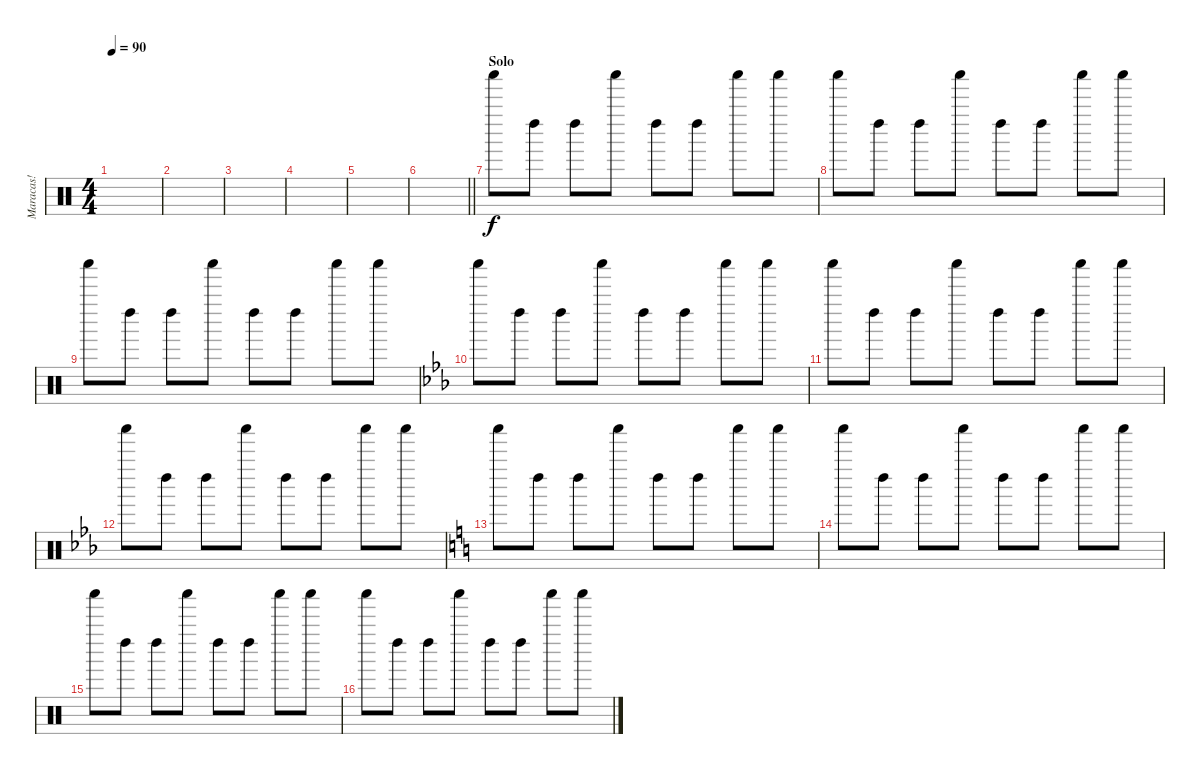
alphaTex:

\track ("Maracas!" "Maracas!") {instrument percussion}
\staff {score}
\articulation defaults
\ts (4 4)
\tempo 90
\clef neutral
\ks c
|
|
|
|
|
\barLineRight lightlight
|
\section ("" "Solo")
"Shaker (hit)".8 "Left Maraca (hit)".8 "Left Maraca (hit)".8 "Shaker (hit)".8 "Left Maraca (hit)".8 "Left Maraca (hit)".8 "Shaker (hit)".8 "Shaker (hit)".8 |
"Shaker (hit)".8 "Left Maraca (hit)".8 "Left Maraca (hit)".8 "Shaker (hit)".8 "Left Maraca (hit)".8 "Left Maraca (hit)".8 "Shaker (hit)".8 "Shaker (hit)".8 |
"Shaker (hit)".8 "Left Maraca (hit)".8 "Left Maraca (hit)".8 "Shaker (hit)".8 "Left Maraca (hit)".8 "Left Maraca (hit)".8 "Shaker (hit)".8 "Shaker (hit)".8 |
\ks eb "Shaker (hit)".8 "Left Maraca (hit)".8 "Left Maraca (hit)".8 "Shaker (hit)".8 "Left Maraca (hit)".8 "Left Maraca (hit)".8 "Shaker (hit)".8 "Shaker (hit)".8
|
"Shaker (hit)".8 "Left Maraca (hit)".8 "Left Maraca (hit)".8 "Shaker (hit)".8 "Left Maraca (hit)".8 "Left Maraca (hit)".8 "Shaker (hit)".8 "Shaker (hit)".8 |
"Shaker (hit)".8 "Left Maraca (hit)".8 "Left Maraca (hit)".8 "Shaker (hit)".8 "Left Maraca (hit)".8 "Left Maraca (hit)".8 "Shaker (hit)".8 "Shaker (hit)".8 |
\ks c "Shaker (hit)".8 "Left Maraca (hit)".8 "Left Maraca (hit)".8 "Shaker (hit)".8 "Left Maraca (hit)".8 "Left Maraca (hit)".8 "Shaker (hit)".8 "Shaker (hit)".8
|
"Shaker (hit)".8 "Left Maraca (hit)".8 "Left Maraca (hit)".8 "Shaker (hit)".8 "Left Maraca (hit)".8 "Left Maraca (hit)".8 "Shaker (hit)".8 "Shaker (hit)".8 |
"Shaker (hit)".8 "Left Maraca (hit)".8 "Left Maraca (hit)".8 "Shaker (hit)".8 "Left Maraca (hit)".8 "Left Maraca (hit)".8 "Shaker (hit)".8 "Shaker (hit)".8 |
"Shaker (hit)".8 "Left Maraca (hit)".8 "Left Maraca (hit)".8 "Shaker (hit)".8 "Left Maraca (hit)".8 "Left Maraca (hit)".8 "Shaker (hit)".8 "Shaker (hit)".8
